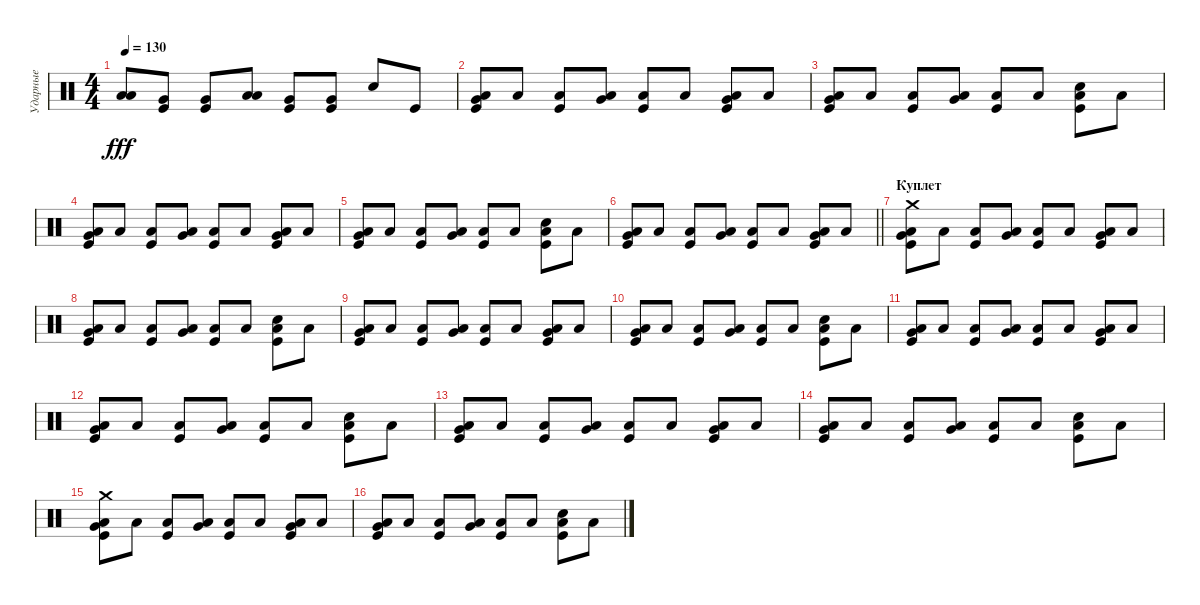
\track ("Ударные" "Ударные") {instrument percussion}
\staff {score}
\articulation defaults
\ts (4 4)
\tempo 130
\clef neutral
\ks c
("Low Tom (hit)" "Low Tom (hit)").8{dy fff} ("Kick (hit)" "Very Low Tom (hit)").8 ("Kick (hit)" "Very Low Tom (hit)").8 ("Low Tom (hit)" "Low Tom (hit)").8 ("Kick (hit)" "Very Low Tom (hit)").8 ("Kick (hit)" "Very Low Tom (hit)").8 "Electric Snare (hit)".8 "Kick (hit)".8 |
("Kick (hit)" "Low Tom (hit)" "Very Low Tom (hit)").8 "Low Tom (hit)".8 ("Kick (hit)" "Low Tom (hit)").8 ("Low Tom (hit)" "Very Low Tom (hit)").8 ("Kick (hit)" "Low Tom (hit)").8 "Low Tom (hit)".8 ("Kick (hit)" "Low Tom (hit)" "Very Low Tom (hit)").8 "Low Tom (hit)".8 |
("Kick (hit)" "Low Tom (hit)" "Very Low Tom (hit)").8 "Low Tom (hit)".8 ("Kick (hit)" "Low Tom (hit)").8 ("Low Tom (hit)" "Very Low Tom (hit)").8 ("Kick (hit)" "Low Tom (hit)").8 "Low Tom (hit)".8 ("Kick (hit)" "Low Tom (hit)" "Electric Snare (hit)").8 "Low Tom (hit)".8 |
("Kick (hit)" "Low Tom (hit)" "Very Low Tom (hit)").8 "Low Tom (hit)".8 ("Kick (hit)" "Low Tom (hit)").8 ("Low Tom (hit)" "Very Low Tom (hit)").8 ("Kick (hit)" "Low Tom (hit)").8 "Low Tom (hit)".8 ("Kick (hit)" "Low Tom (hit)" "Very Low Tom (hit)").8 "Low Tom (hit)".8 |
("Kick (hit)" "Low Tom (hit)" "Very Low Tom (hit)").8 "Low Tom (hit)".8 ("Kick (hit)" "Low Tom (hit)").8 ("Low Tom (hit)" "Very Low Tom (hit)").8 ("Kick (hit)" "Low Tom (hit)").8 "Low Tom (hit)".8 ("Kick (hit)" "Low Tom (hit)" "Electric Snare (hit)").8 "Low Tom (hit)".8 |
\barLineRight lightlight
("Kick (hit)" "Low Tom (hit)" "Very Low Tom (hit)").8 "Low Tom (hit)".8 ("Kick (hit)" "Low Tom (hit)").8 ("Low Tom (hit)" "Very Low Tom (hit)").8 ("Kick (hit)" "Low Tom (hit)").8 "Low Tom (hit)".8 ("Kick (hit)" "Low Tom (hit)" "Very Low Tom (hit)").8 "Low Tom (hit)".8 |
\section ("" "Куплет")
("Kick (hit)" "Crash medium (hit)" "Low Tom (hit)" "Very Low Tom (hit)").8 "Low Tom (hit)".8 ("Kick (hit)" "Low Tom (hit)").8 ("Low Tom (hit)" "Very Low Tom (hit)").8 ("Kick (hit)" "Low Tom (hit)").8 "Low Tom (hit)".8 ("Kick (hit)" "Low Tom (hit)" "Very Low Tom (hit)").8 "Low Tom (hit)".8 |
("Kick (hit)" "Low Tom (hit)" "Very Low Tom (hit)").8 "Low Tom (hit)".8 ("Kick (hit)" "Low Tom (hit)").8 ("Low Tom (hit)" "Very Low Tom (hit)").8 ("Kick (hit)" "Low Tom (hit)").8 "Low Tom (hit)".8 ("Kick (hit)" "Low Tom (hit)" "Electric Snare (hit)").8 "Low Tom (hit)".8 |
("Kick (hit)" "Low Tom (hit)" "Very Low Tom (hit)").8 "Low Tom (hit)".8 ("Kick (hit)" "Low Tom (hit)").8 ("Low Tom (hit)" "Very Low Tom (hit)").8 ("Kick (hit)" "Low Tom (hit)").8 "Low Tom (hit)".8 ("Kick (hit)" "Low Tom (hit)" "Very Low Tom (hit)").8 "Low Tom (hit)".8 |
("Kick (hit)" "Low Tom (hit)" "Very Low Tom (hit)").8 "Low Tom (hit)".8 ("Kick (hit)" "Low Tom (hit)").8 ("Low Tom (hit)" "Very Low Tom (hit)").8 ("Kick (hit)" "Low Tom (hit)").8 "Low Tom (hit)".8 ("Kick (hit)" "Low Tom (hit)" "Electric Snare (hit)").8 "Low Tom (hit)".8 |
("Kick (hit)" "Low Tom (hit)" "Very Low Tom (hit)").8 "Low Tom (hit)".8 ("Kick (hit)" "Low Tom (hit)").8 ("Low Tom (hit)" "Very Low Tom (hit)").8 ("Kick (hit)" "Low Tom (hit)").8 "Low Tom (hit)".8 ("Kick (hit)" "Low Tom (hit)" "Very Low Tom (hit)").8 "Low Tom (hit)".8 |
("Kick (hit)" "Low Tom (hit)" "Very Low Tom (hit)").8 "Low Tom (hit)".8 ("Kick (hit)" "Low Tom (hit)").8 ("Low Tom (hit)" "Very Low Tom (hit)").8 ("Kick (hit)" "Low Tom (hit)").8 "Low Tom (hit)".8 ("Kick (hit)" "Low Tom (hit)" "Electric Snare (hit)").8 "Low Tom (hit)".8 |
("Kick (hit)" "Low Tom (hit)" "Very Low Tom (hit)").8 "Low Tom (hit)".8 ("Kick (hit)" "Low Tom (hit)").8 ("Low Tom (hit)" "Very Low Tom (hit)").8 ("Kick (hit)" "Low Tom (hit)").8 "Low Tom (hit)".8 ("Kick (hit)" "Low Tom (hit)" "Very Low Tom (hit)").8 "Low Tom (hit)".8 |
("Kick (hit)" "Low Tom (hit)" "Very Low Tom (hit)").8 "Low Tom (hit)".8 ("Kick (hit)" "Low Tom (hit)").8 ("Low Tom (hit)" "Very Low Tom (hit)").8 ("Kick (hit)" "Low Tom (hit)").8 "Low Tom (hit)".8 ("Kick (hit)" "Low Tom (hit)" "Electric Snare (hit)").8 "Low Tom (hit)".8 |
("Kick (hit)" "Low Tom (hit)" "Very Low Tom (hit)" "Crash medium (hit)").8 "Low Tom (hit)".8 ("Kick (hit)" "Low Tom (hit)").8 ("Low Tom (hit)" "Very Low Tom (hit)").8 ("Kick (hit)" "Low Tom (hit)").8 "Low Tom (hit)".8 ("Kick (hit)" "Low Tom (hit)" "Very Low Tom (hit)").8 "Low Tom (hit)".8 |
("Kick (hit)" "Low Tom (hit)" "Very Low Tom (hit)").8 "Low Tom (hit)".8 ("Kick (hit)" "Low Tom (hit)").8 ("Low Tom (hit)" "Very Low Tom (hit)").8 ("Kick (hit)" "Low Tom (hit)").8 "Low Tom (hit)".8 ("Kick (hit)" "Low Tom (hit)" "Electric Snare (hit)").8 "Low Tom (hit)".8
